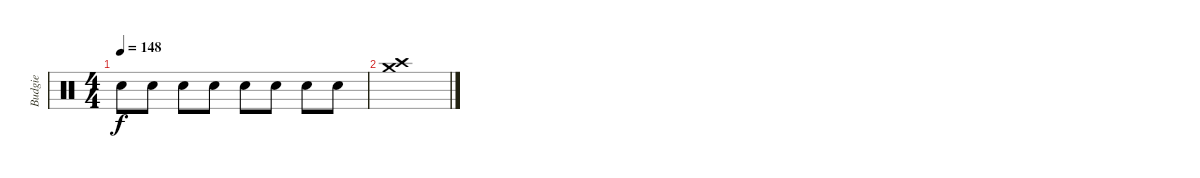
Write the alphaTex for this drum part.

\track ("Budgie" "Budgie") {instrument percussion}
\staff {score}
\articulation defaults
\ts (4 4)
\tempo 148
\clef neutral
\ks c "Snare (hit) 2".8{dy f} "Snare (hit) 2".8 "Snare (hit) 2".8 "Snare (hit) 2".8 "Snare (hit) 2".8 "Snare (hit) 2".8 "Snare (hit) 2".8 "Snare (hit) 2".8
|
("Crash high (hit)" "Crash medium (hit)").1
